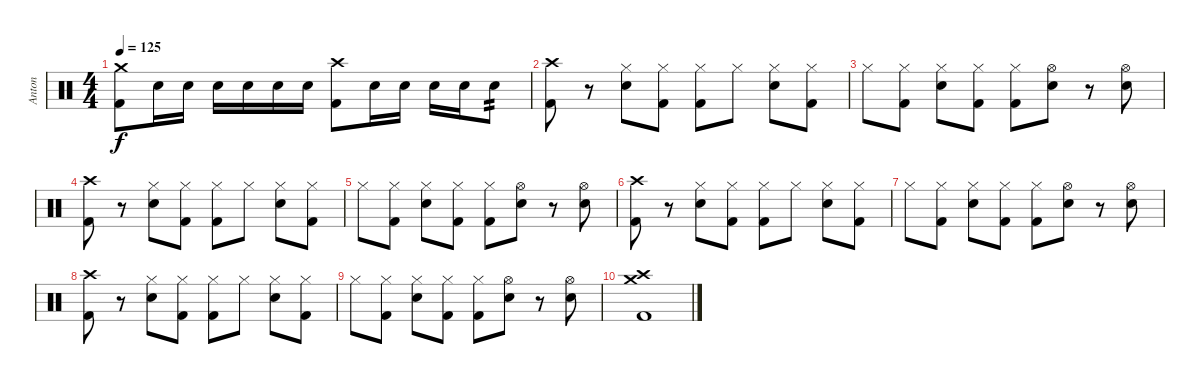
\track ("Anton" "Anton") {instrument percussion}
\staff {score}
\articulation defaults
\ts (4 4)
\tempo 125
\clef neutral
\ks c
("Kick (hit) 2" "Crash medium (hit)").8{dy f} "Electric Snare (hit)".16 "Electric Snare (hit)".16 "Electric Snare (hit)".16 "Electric Snare (hit)".16 "Electric Snare (hit)".16 "Electric Snare (hit)".16 ("Kick (hit) 2" "Crash high (hit)").8 "Electric Snare (hit)".16 "Electric Snare (hit)".16 "Electric Snare (hit)".16 "Electric Snare (hit)".16 "Electric Snare (hit)".8{tp 2} |
("Kick (hit) 2" "Crash high (hit)").8 r.8 ("Electric Snare (hit)" "Hi-Hat (closed)").8 ("Kick (hit) 2" "Hi-Hat (closed)").8 ("Kick (hit) 2" "Hi-Hat (closed)").8 "Hi-Hat (closed)".8 ("Electric Snare (hit)" "Hi-Hat (closed)").8 ("Kick (hit) 2" "Hi-Hat (closed)").8 |
"Hi-Hat (closed)".8 ("Kick (hit) 2" "Hi-Hat (closed)").8 ("Electric Snare (hit)" "Hi-Hat (closed)").8 ("Kick (hit) 2" "Hi-Hat (closed)").8 ("Kick (hit) 2" "Hi-Hat (closed)").8 ("Electric Snare (hit)" "Hi-Hat (open)").8 r.8 ("Electric Snare (hit)" "Hi-Hat (open)").8 |
("Kick (hit) 2" "Crash high (hit)").8 r.8 ("Electric Snare (hit)" "Hi-Hat (closed)").8 ("Kick (hit) 2" "Hi-Hat (closed)").8 ("Kick (hit) 2" "Hi-Hat (closed)").8 "Hi-Hat (closed)".8 ("Electric Snare (hit)" "Hi-Hat (closed)").8 ("Kick (hit) 2" "Hi-Hat (closed)").8 |
"Hi-Hat (closed)".8 ("Kick (hit) 2" "Hi-Hat (closed)").8 ("Electric Snare (hit)" "Hi-Hat (closed)").8 ("Kick (hit) 2" "Hi-Hat (closed)").8 ("Kick (hit) 2" "Hi-Hat (closed)").8 ("Electric Snare (hit)" "Hi-Hat (open)").8 r.8 ("Electric Snare (hit)" "Hi-Hat (open)").8 |
("Kick (hit) 2" "Crash high (hit)").8 r.8 ("Electric Snare (hit)" "Hi-Hat (closed)").8 ("Kick (hit) 2" "Hi-Hat (closed)").8 ("Kick (hit) 2" "Hi-Hat (closed)").8 "Hi-Hat (closed)".8 ("Electric Snare (hit)" "Hi-Hat (closed)").8 ("Kick (hit) 2" "Hi-Hat (closed)").8 |
"Hi-Hat (closed)".8 ("Kick (hit) 2" "Hi-Hat (closed)").8 ("Electric Snare (hit)" "Hi-Hat (closed)").8 ("Kick (hit) 2" "Hi-Hat (closed)").8 ("Kick (hit) 2" "Hi-Hat (closed)").8 ("Electric Snare (hit)" "Hi-Hat (open)").8 r.8 ("Electric Snare (hit)" "Hi-Hat (open)").8 |
("Kick (hit) 2" "Crash high (hit)").8 r.8 ("Electric Snare (hit)" "Hi-Hat (closed)").8 ("Kick (hit) 2" "Hi-Hat (closed)").8 ("Kick (hit) 2" "Hi-Hat (closed)").8 "Hi-Hat (closed)".8 ("Electric Snare (hit)" "Hi-Hat (closed)").8 ("Kick (hit) 2" "Hi-Hat (closed)").8 |
"Hi-Hat (closed)".8 ("Kick (hit) 2" "Hi-Hat (closed)").8 ("Electric Snare (hit)" "Hi-Hat (closed)").8 ("Kick (hit) 2" "Hi-Hat (closed)").8 ("Kick (hit) 2" "Hi-Hat (closed)").8 ("Electric Snare (hit)" "Hi-Hat (open)").8 r.8 ("Electric Snare (hit)" "Hi-Hat (open)").8 |
("Kick (hit) 2" "Crash high (hit)" "Crash medium (hit)").1
